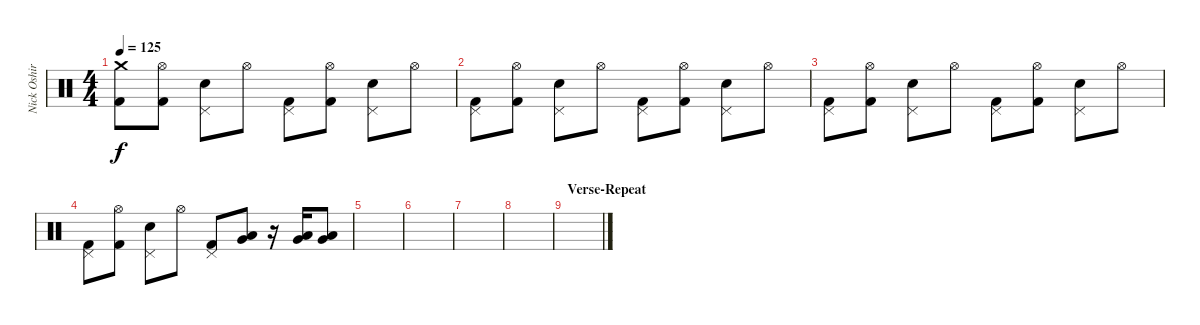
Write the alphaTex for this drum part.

\track ("Nick Oshiro - Drums" "Nick Oshir") {instrument percussion}
\staff {score}
\articulation defaults
\ts (4 4)
\tempo 125
\clef neutral
\ks c
("Crash medium (hit)" "Kick (hit) 2").8{dy f} ("Hi-Hat (open)" "Kick (hit) 2").8 ("Pedal Hi-Hat (hit)" "Electric Snare (hit)").8 "Hi-Hat (open)".8 ("Pedal Hi-Hat (hit)" "Kick (hit) 2").8 ("Hi-Hat (open)" "Kick (hit) 2").8 ("Pedal Hi-Hat (hit)" "Electric Snare (hit)").8 "Hi-Hat (open)".8 |
("Pedal Hi-Hat (hit)" "Kick (hit) 2").8 ("Hi-Hat (open)" "Kick (hit) 2").8 ("Pedal Hi-Hat (hit)" "Electric Snare (hit)").8 "Hi-Hat (open)".8 ("Pedal Hi-Hat (hit)" "Kick (hit) 2").8 ("Hi-Hat (open)" "Kick (hit) 2").8 ("Pedal Hi-Hat (hit)" "Electric Snare (hit)").8 "Hi-Hat (open)".8 |
("Pedal Hi-Hat (hit)" "Kick (hit) 2").8 ("Hi-Hat (open)" "Kick (hit) 2").8 ("Pedal Hi-Hat (hit)" "Electric Snare (hit)").8 "Hi-Hat (open)".8 ("Pedal Hi-Hat (hit)" "Kick (hit) 2").8 ("Hi-Hat (open)" "Kick (hit) 2").8 ("Pedal Hi-Hat (hit)" "Electric Snare (hit)").8 "Hi-Hat (open)".8 |
("Pedal Hi-Hat (hit)" "Kick (hit) 2").8 ("Hi-Hat (open)" "Kick (hit) 2").8 ("Pedal Hi-Hat (hit)" "Electric Snare (hit)").8 "Hi-Hat (open)".8 ("Pedal Hi-Hat (hit)" "Kick (hit) 2").8 ("Low Tom (hit)" "Very Low Tom (hit)").8 r.16 ("Low Tom (hit)" "Very Low Tom (hit)").16 ("Low Tom (hit)" "Very Low Tom (hit)").8 |
|
|
|
|
\section ("" "Verse-Repeat")
